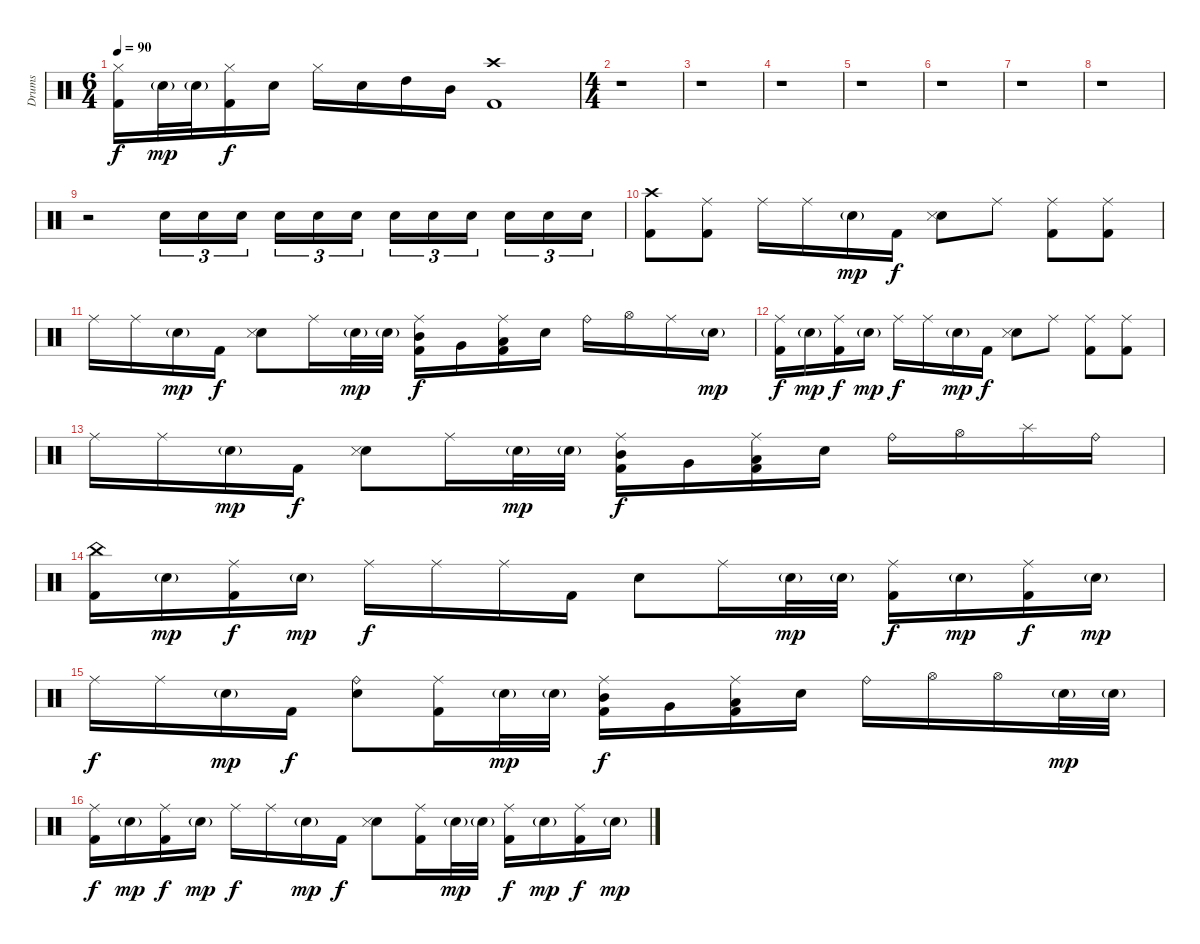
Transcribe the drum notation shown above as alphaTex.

\track ("Drums" "Drums") {instrument percussion}
\staff {score}
\articulation defaults
\ts (6 4)
\tempo 90
\clef neutral
\ks c
("Hi-Hat (closed)" "Kick (hit) 2").16{dy f} "Electric Snare (hit)"{g}.32{dy mp} "Electric Snare (hit)"{g}.32 ("Hi-Hat (closed)" "Kick (hit) 2").16{dy f} "Electric Snare (hit)".16 "Hi-Hat (closed)".16 "Electric Snare (hit)".16 "High Tom (hit)".16 "Mid Tom (hit)".16 ("Crash high (hit)" "Kick (hit) 2").1 |
\ts (4 4)
r.1 |
r.1 |
r.1 |
r.1 |
r.1 |
r.1 |
r.1 |
r.2{volume 0} "Electric Snare (hit)".16{tu (3 2) volume 8} "Electric Snare (hit)".16{tu (3 2)} "Electric Snare (hit)".16{tu (3 2)} "Electric Snare (hit)".16{tu (3 2)} "Electric Snare (hit)".16{tu (3 2)} "Electric Snare (hit)".16{tu (3 2)} "Electric Snare (hit)".16{tu (3 2)} "Electric Snare (hit)".16{tu (3 2)} "Electric Snare (hit)".16{tu (3 2)} "Electric Snare (hit)".16{tu (3 2)} "Electric Snare (hit)".16{tu (3 2)} "Electric Snare (hit)".16{tu (3 2)} |
("Crash high (hit)" "Kick (hit) 2").8 ("Kick (hit) 2" "Ride (middle)").8 "Ride (middle)".16 "Ride (middle)".16 "Electric Snare (hit)"{g}.16{dy mp} "Kick (hit) 2".16{dy f} ("Electric Snare (hit)" "Snare (side stick) 3").8 "Ride (middle)".8 ("Ride (middle)" "Kick (hit) 2").8 ("Ride (middle)" "Kick (hit) 2").8 |
"Ride (middle)".16 "Ride (middle)".16 "Electric Snare (hit)"{g}.16{dy mp} "Kick (hit) 2".16{dy f} ("Electric Snare (hit)" "Snare (side stick) 3").8 "Ride (middle)".16 "Electric Snare (hit)"{g}.32{dy mp} "Electric Snare (hit)"{g}.32 ("Ride (middle)" "Mid Tom (hit)" "Kick (hit) 2").16{dy f} "Very Low Tom (hit)".16 ("Low Floor Tom (hit)" "Ride (middle)" "Kick (hit) 2").16 "Electric Snare (hit)".16 "Ride (bell)".16 "Hi-Hat (open)".16 "Ride (middle)".16 "Electric Snare (hit)"{g}.16{dy mp} |
("Ride (middle)" "Kick (hit) 2").16{dy f} "Electric Snare (hit)"{g}.16{dy mp} ("Ride (middle)" "Kick (hit) 2").16{dy f} "Electric Snare (hit)"{g}.16{dy mp} "Ride (middle)".16{dy f} "Ride (middle)".16 "Electric Snare (hit)"{g}.16{dy mp} "Kick (hit) 2".16{dy f} ("Electric Snare (hit)" "Snare (side stick) 3").8 "Ride (middle)".8 ("Ride (middle)" "Kick (hit) 2").8 ("Ride (middle)" "Kick (hit) 2").8 |
"Ride (middle)".16 "Ride (middle)".16 "Electric Snare (hit)"{g}.16{dy mp} "Kick (hit) 2".16{dy f} ("Electric Snare (hit)" "Snare (side stick) 3").8 "Ride (middle)".16 "Electric Snare (hit)"{g}.32{dy mp} "Electric Snare (hit)"{g}.32 ("Ride (middle)" "Mid Tom (hit)" "Kick (hit) 2").16{dy f} "Very Low Tom (hit)".16 ("Low Floor Tom (hit)" "Ride (middle)" "Kick (hit) 2").16 "Electric Snare (hit)".16 "Ride (bell)".16 "Hi-Hat (open)".16 "Splash (hit)".16 "Ride (bell)".16 |
("China (hit)" "Kick (hit) 2").16 "Electric Snare (hit)"{g}.16{dy mp} ("Ride (middle)" "Kick (hit) 2").16{dy f} "Electric Snare (hit)"{g}.16{dy mp} "Ride (middle)".16{dy f} "Ride (middle)".16 "Ride (middle)".16 "Kick (hit) 2".16 "Electric Snare (hit)".8 "Ride (middle)".16 "Electric Snare (hit)"{g}.32{dy mp} "Electric Snare (hit)"{g}.32 ("Ride (middle)" "Kick (hit) 2").16{dy f} "Electric Snare (hit)"{g}.16{dy mp} ("Ride (middle)" "Kick (hit) 2").16{dy f} "Electric Snare (hit)"{g}.16{dy mp} |
"Ride (middle)".16{dy f} "Ride (middle)".16 "Electric Snare (hit)"{g}.16{dy mp} "Kick (hit) 2".16{dy f} ("Electric Snare (hit)" "Ride (bell)").8 ("Ride (middle)" "Kick (hit) 2").16 "Electric Snare (hit)"{g}.32{dy mp} "Electric Snare (hit)"{g}.32 ("Ride (middle)" "Mid Tom (hit)" "Kick (hit) 2").16{dy f} "Very Low Tom (hit)".16 ("Low Floor Tom (hit)" "Ride (middle)" "Kick (hit) 2").16 "Electric Snare (hit)".16 "Ride (bell)".16 "Hi-Hat (open)".16 "Hi-Hat (open)".16 "Electric Snare (hit)"{g}.32{dy mp} "Electric Snare (hit)"{g}.32 |
("Ride (middle)" "Kick (hit) 2").16{dy f} "Electric Snare (hit)"{g}.16{dy mp} ("Ride (middle)" "Kick (hit) 2").16{dy f} "Electric Snare (hit)"{g}.16{dy mp} "Ride (middle)".16{dy f} "Ride (middle)".16 "Electric Snare (hit)"{g}.16{dy mp} "Kick (hit) 2".16{dy f} ("Electric Snare (hit)" "Snare (side stick) 3").8 ("Ride (middle)" "Kick (hit) 2").16 "Electric Snare (hit)"{g}.32{dy mp} "Electric Snare (hit)"{g}.32 ("Kick (hit) 2" "Ride (middle)").16{dy f} "Electric Snare (hit)"{g}.16{dy mp} ("Ride (middle)" "Kick (hit) 2").16{dy f} "Electric Snare (hit)"{g}.16{dy mp}
